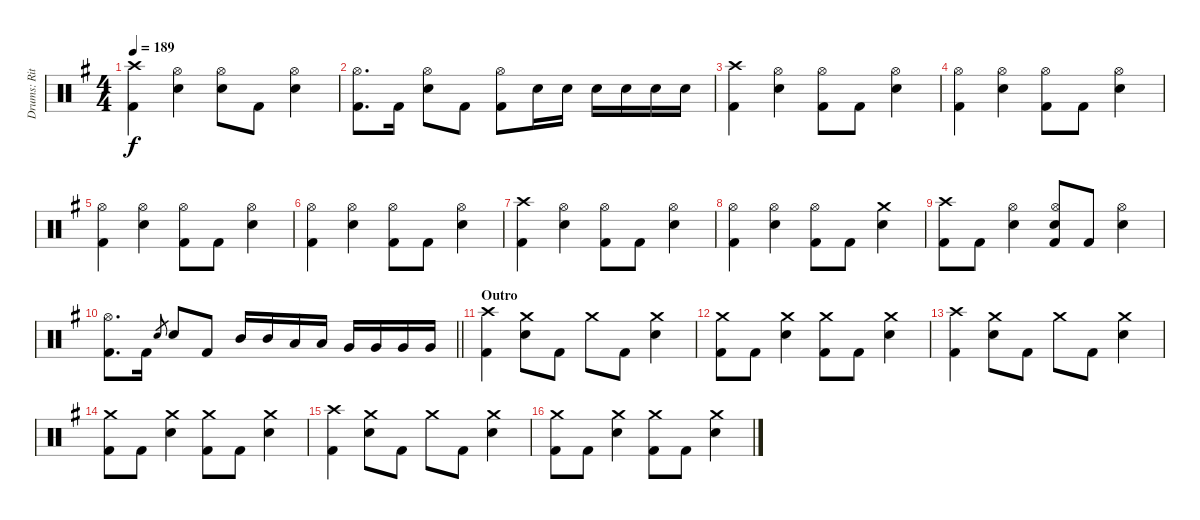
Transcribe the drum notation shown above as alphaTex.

\track ("Drums: Ritsu Tainaka" "Drums: Rit") {instrument percussion}
\staff {score}
\articulation defaults
\ts (4 4)
\tempo 189
\clef neutral
\ks g
("Crash high (hit)" "Kick (hit) 2").4{dy f} ("Hi-Hat (open)" "Electric Snare (hit)").4 ("Hi-Hat (open)" "Electric Snare (hit)").8 "Kick (hit) 2".8 ("Hi-Hat (open)" "Electric Snare (hit)").4 |
("Hi-Hat (open)" "Kick (hit) 2").8{d} "Kick (hit) 2".16 ("Hi-Hat (open)" "Electric Snare (hit)").8 "Kick (hit) 2".8 ("Hi-Hat (open)" "Kick (hit) 2").8 "Electric Snare (hit)".16 "Electric Snare (hit)".16 "Electric Snare (hit)".16 "Electric Snare (hit)".16 "Electric Snare (hit)".16 "Electric Snare (hit)".16 |
("Crash high (hit)" "Kick (hit) 2").4 ("Hi-Hat (open)" "Electric Snare (hit)").4 ("Hi-Hat (open)" "Kick (hit) 2").8 "Kick (hit) 2".8 ("Hi-Hat (open)" "Electric Snare (hit)").4 |
("Hi-Hat (open)" "Kick (hit) 2").4 ("Hi-Hat (open)" "Electric Snare (hit)").4 ("Hi-Hat (open)" "Kick (hit) 2").8 "Kick (hit) 2".8 ("Hi-Hat (open)" "Electric Snare (hit)").4 |
("Hi-Hat (open)" "Kick (hit) 2").4 ("Hi-Hat (open)" "Electric Snare (hit)").4 ("Hi-Hat (open)" "Kick (hit) 2").8 "Kick (hit) 2".8 ("Hi-Hat (open)" "Electric Snare (hit)").4 |
("Hi-Hat (open)" "Kick (hit) 2").4 ("Hi-Hat (open)" "Electric Snare (hit)").4 ("Hi-Hat (open)" "Kick (hit) 2").8 "Kick (hit) 2".8 ("Hi-Hat (open)" "Electric Snare (hit)").4 |
("Crash high (hit)" "Kick (hit) 2").4 ("Hi-Hat (open)" "Electric Snare (hit)").4 ("Hi-Hat (open)" "Kick (hit) 2").8 "Kick (hit) 2".8 ("Hi-Hat (open)" "Electric Snare (hit)").4 |
("Hi-Hat (open)" "Kick (hit) 2").4 ("Hi-Hat (open)" "Electric Snare (hit)").4 ("Hi-Hat (open)" "Kick (hit) 2").8 "Kick (hit) 2".8 ("Crash medium (hit)" "Electric Snare (hit)").4 |
("Crash high (hit)" "Kick (hit) 2").8 "Kick (hit) 2".8 ("Hi-Hat (open)" "Electric Snare (hit)").4 ("Hi-Hat (open)" "Electric Snare (hit)" "Kick (hit) 2").8 "Kick (hit) 2".8 ("Hi-Hat (open)" "Electric Snare (hit)").4 |
\barLineRight lightlight
("Hi-Hat (open)" "Kick (hit) 2").8{d} "Kick (hit) 2".16 "Electric Snare (hit)".8{gr} "Electric Snare (hit)".8 "Kick (hit) 2".8 "Mid Tom (hit)".16 "Mid Tom (hit)".16 "Low Tom (hit)".16 "Low Tom (hit)".16 "Very Low Tom (hit)".16 "Very Low Tom (hit)".16 "Very Low Tom (hit)".16 "Very Low Tom (hit)".16 |
\section ("" "Outro")
("Crash high (hit)" "Kick (hit) 2").4 ("Crash medium (hit)" "Electric Snare (hit)").8 "Kick (hit) 2".8 "Crash medium (hit)".8 "Kick (hit) 2".8 ("Crash medium (hit)" "Electric Snare (hit)").4 |
("Crash medium (hit)" "Kick (hit) 2").8 "Kick (hit) 2".8 ("Crash medium (hit)" "Electric Snare (hit)").4 ("Crash medium (hit)" "Kick (hit) 2").8 "Kick (hit) 2".8 ("Crash medium (hit)" "Electric Snare (hit)").4 |
("Crash high (hit)" "Kick (hit) 2").4 ("Crash medium (hit)" "Electric Snare (hit)").8 "Kick (hit) 2".8 "Crash medium (hit)".8 "Kick (hit) 2".8 ("Crash medium (hit)" "Electric Snare (hit)").4 |
("Crash medium (hit)" "Kick (hit) 2").8 "Kick (hit) 2".8 ("Crash medium (hit)" "Electric Snare (hit)").4 ("Crash medium (hit)" "Kick (hit) 2").8 "Kick (hit) 2".8 ("Crash medium (hit)" "Electric Snare (hit)").4 |
("Crash high (hit)" "Kick (hit) 2").4 ("Crash medium (hit)" "Electric Snare (hit)").8 "Kick (hit) 2".8 "Crash medium (hit)".8 "Kick (hit) 2".8 ("Crash medium (hit)" "Electric Snare (hit)").4 |
("Crash medium (hit)" "Kick (hit) 2").8 "Kick (hit) 2".8 ("Crash medium (hit)" "Electric Snare (hit)").4 ("Crash medium (hit)" "Kick (hit) 2").8 "Kick (hit) 2".8 ("Crash medium (hit)" "Electric Snare (hit)").4
